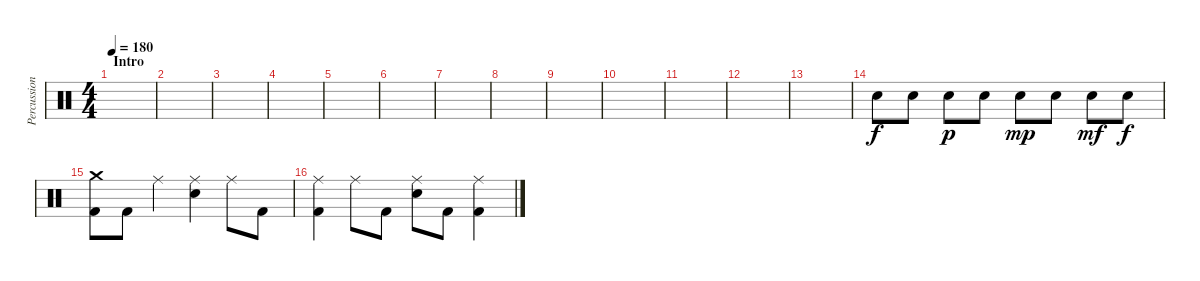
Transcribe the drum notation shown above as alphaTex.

\track ("Percussion" "Percussion") {instrument percussion}
\staff {score}
\articulation defaults
\ts (4 4)
\section ("" "Intro")
\tempo 180
\clef neutral
\ks c
|
|
|
|
|
|
|
|
|
|
|
|
|
"Electric Snare (hit)".8 "Electric Snare (hit)".8 "Electric Snare (hit)".8{dy p} "Electric Snare (hit)".8 "Electric Snare (hit)".8{dy mp} "Electric Snare (hit)".8 "Electric Snare (hit)".8{dy mf} "Electric Snare (hit)".8{dy f} |
("Kick (hit) 2" "Crash medium (hit)").8 "Kick (hit) 2".8 "Ride (middle)".4 ("Electric Snare (hit)" "Ride (middle)").4 "Ride (middle)".8 "Kick (hit) 2".8 |
("Kick (hit) 2" "Ride (middle)").4 "Ride (middle)".8 "Kick (hit) 2".8 ("Electric Snare (hit)" "Ride (middle)").8 "Kick (hit) 2".8 ("Kick (hit) 2" "Ride (middle)").4
